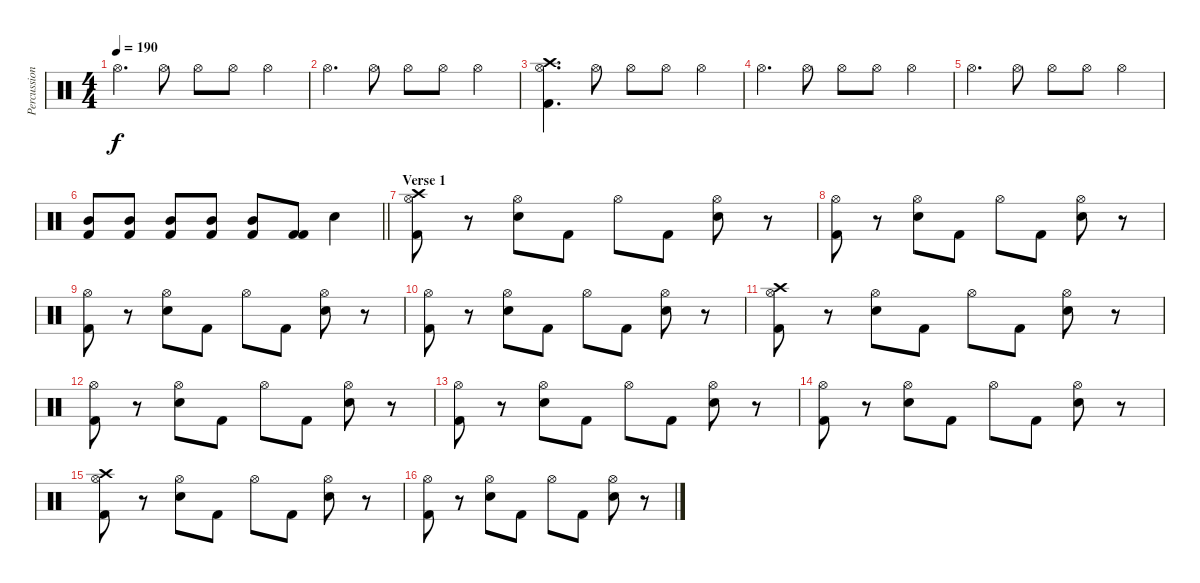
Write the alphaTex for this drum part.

\track ("Percussion" "Percussion") {instrument percussion}
\staff {score}
\articulation defaults
\ts (4 4)
\tempo 190
\clef neutral
\ks c "Hi-Hat (open)".4{d dy f} "Hi-Hat (open)".8 "Hi-Hat (open)".8 "Hi-Hat (open)".8 "Hi-Hat (open)".4
|
"Hi-Hat (open)".4{d} "Hi-Hat (open)".8 "Hi-Hat (open)".8 "Hi-Hat (open)".8 "Hi-Hat (open)".4 |
("Hi-Hat (open)" "Kick (hit) 2" "Crash high (hit)").4{d} "Hi-Hat (open)".8 "Hi-Hat (open)".8 "Hi-Hat (open)".8 "Hi-Hat (open)".4 |
"Hi-Hat (open)".4{d} "Hi-Hat (open)".8 "Hi-Hat (open)".8 "Hi-Hat (open)".8 "Hi-Hat (open)".4 |
"Hi-Hat (open)".4{d} "Hi-Hat (open)".8 "Hi-Hat (open)".8 "Hi-Hat (open)".8 "Hi-Hat (open)".4 |
\barLineRight lightlight
("Kick (hit) 2" "Mid Tom (hit)").8 ("Kick (hit) 2" "Mid Tom (hit)").8 ("Kick (hit) 2" "Mid Tom (hit)").8 ("Kick (hit) 2" "Mid Tom (hit)").8 ("Kick (hit) 2" "Mid Tom (hit)").8 ("Kick (hit) 2" "Kick (hit) 2").8 "Snare (hit) 2".4 |
\section ("" "Verse 1")
("Hi-Hat (open)" "Crash high (hit)" "Kick (hit) 2").8 r.8 ("Hi-Hat (open)" "Snare (hit) 2").8 "Kick (hit) 2".8 "Hi-Hat (open)".8 "Kick (hit) 2".8 ("Hi-Hat (open)" "Snare (hit) 2").8 r.8 |
("Hi-Hat (open)" "Kick (hit) 2").8 r.8 ("Hi-Hat (open)" "Snare (hit) 2").8 "Kick (hit) 2".8 "Hi-Hat (open)".8 "Kick (hit) 2".8 ("Hi-Hat (open)" "Snare (hit) 2").8 r.8 |
("Hi-Hat (open)" "Kick (hit) 2").8 r.8 ("Hi-Hat (open)" "Snare (hit) 2").8 "Kick (hit) 2".8 "Hi-Hat (open)".8 "Kick (hit) 2".8 ("Hi-Hat (open)" "Snare (hit) 2").8 r.8 |
("Hi-Hat (open)" "Kick (hit) 2").8 r.8 ("Hi-Hat (open)" "Snare (hit) 2").8 "Kick (hit) 2".8 "Hi-Hat (open)".8 "Kick (hit) 2".8 ("Hi-Hat (open)" "Snare (hit) 2").8 r.8 |
("Hi-Hat (open)" "Crash high (hit)" "Kick (hit) 2").8 r.8 ("Hi-Hat (open)" "Snare (hit) 2").8 "Kick (hit) 2".8 "Hi-Hat (open)".8 "Kick (hit) 2".8 ("Hi-Hat (open)" "Snare (hit) 2").8 r.8 |
("Hi-Hat (open)" "Kick (hit) 2").8 r.8 ("Hi-Hat (open)" "Snare (hit) 2").8 "Kick (hit) 2".8 "Hi-Hat (open)".8 "Kick (hit) 2".8 ("Hi-Hat (open)" "Snare (hit) 2").8 r.8 |
("Hi-Hat (open)" "Kick (hit) 2").8 r.8 ("Hi-Hat (open)" "Snare (hit) 2").8 "Kick (hit) 2".8 "Hi-Hat (open)".8 "Kick (hit) 2".8 ("Hi-Hat (open)" "Snare (hit) 2").8 r.8 |
("Hi-Hat (open)" "Kick (hit) 2").8 r.8 ("Hi-Hat (open)" "Snare (hit) 2").8 "Kick (hit) 2".8 "Hi-Hat (open)".8 "Kick (hit) 2".8 ("Hi-Hat (open)" "Snare (hit) 2").8 r.8 |
("Hi-Hat (open)" "Crash high (hit)" "Kick (hit) 2").8 r.8 ("Hi-Hat (open)" "Snare (hit) 2").8 "Kick (hit) 2".8 "Hi-Hat (open)".8 "Kick (hit) 2".8 ("Hi-Hat (open)" "Snare (hit) 2").8 r.8 |
("Hi-Hat (open)" "Kick (hit) 2").8 r.8 ("Hi-Hat (open)" "Snare (hit) 2").8 "Kick (hit) 2".8 "Hi-Hat (open)".8 "Kick (hit) 2".8 ("Hi-Hat (open)" "Snare (hit) 2").8 r.8
